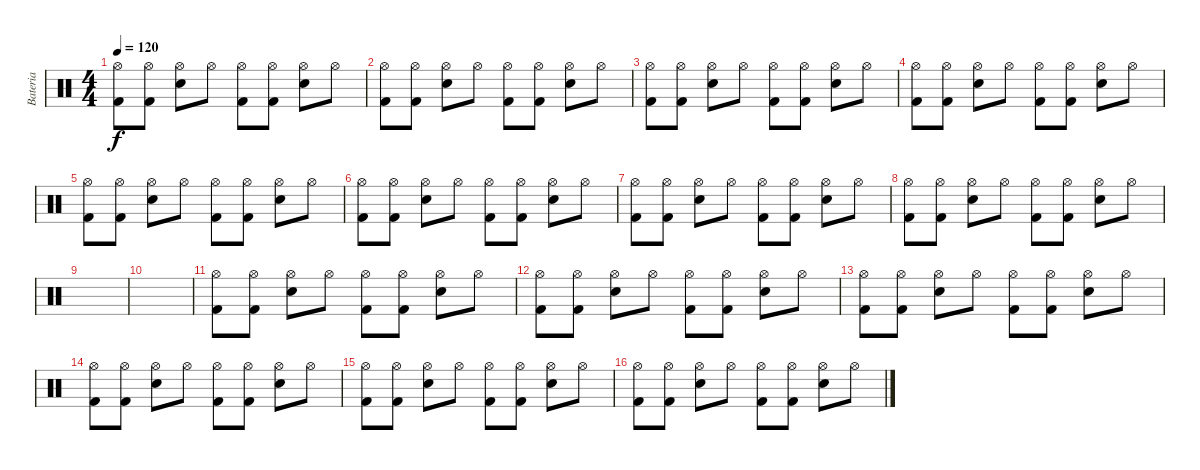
\track ("Bateria" "Bateria") {instrument percussion}
\staff {score}
\articulation defaults
\ts (4 4)
\tempo 120
\clef neutral
\ks c
("Hi-Hat (open)" "Kick (hit) 2").8{dy f} ("Hi-Hat (open)" "Kick (hit) 2").8 ("Hi-Hat (open)" "Electric Snare (hit)").8 "Hi-Hat (open)".8 ("Hi-Hat (open)" "Kick (hit) 2").8 ("Hi-Hat (open)" "Kick (hit) 2").8 ("Hi-Hat (open)" "Electric Snare (hit)").8 "Hi-Hat (open)".8 |
("Hi-Hat (open)" "Kick (hit) 2").8 ("Hi-Hat (open)" "Kick (hit) 2").8 ("Hi-Hat (open)" "Electric Snare (hit)").8 "Hi-Hat (open)".8 ("Hi-Hat (open)" "Kick (hit) 2").8 ("Hi-Hat (open)" "Kick (hit) 2").8 ("Hi-Hat (open)" "Electric Snare (hit)").8 "Hi-Hat (open)".8 |
("Hi-Hat (open)" "Kick (hit) 2").8 ("Hi-Hat (open)" "Kick (hit) 2").8 ("Hi-Hat (open)" "Electric Snare (hit)").8 "Hi-Hat (open)".8 ("Hi-Hat (open)" "Kick (hit) 2").8 ("Hi-Hat (open)" "Kick (hit) 2").8 ("Hi-Hat (open)" "Electric Snare (hit)").8 "Hi-Hat (open)".8 |
("Hi-Hat (open)" "Kick (hit) 2").8 ("Hi-Hat (open)" "Kick (hit) 2").8 ("Hi-Hat (open)" "Electric Snare (hit)").8 "Hi-Hat (open)".8 ("Hi-Hat (open)" "Kick (hit) 2").8 ("Hi-Hat (open)" "Kick (hit) 2").8 ("Hi-Hat (open)" "Electric Snare (hit)").8 "Hi-Hat (open)".8 |
("Hi-Hat (open)" "Kick (hit) 2").8 ("Hi-Hat (open)" "Kick (hit) 2").8 ("Hi-Hat (open)" "Electric Snare (hit)").8 "Hi-Hat (open)".8 ("Hi-Hat (open)" "Kick (hit) 2").8 ("Hi-Hat (open)" "Kick (hit) 2").8 ("Hi-Hat (open)" "Electric Snare (hit)").8 "Hi-Hat (open)".8 |
("Hi-Hat (open)" "Kick (hit) 2").8 ("Hi-Hat (open)" "Kick (hit) 2").8 ("Hi-Hat (open)" "Electric Snare (hit)").8 "Hi-Hat (open)".8 ("Hi-Hat (open)" "Kick (hit) 2").8 ("Hi-Hat (open)" "Kick (hit) 2").8 ("Hi-Hat (open)" "Electric Snare (hit)").8 "Hi-Hat (open)".8 |
("Hi-Hat (open)" "Kick (hit) 2").8 ("Hi-Hat (open)" "Kick (hit) 2").8 ("Hi-Hat (open)" "Electric Snare (hit)").8 "Hi-Hat (open)".8 ("Hi-Hat (open)" "Kick (hit) 2").8 ("Hi-Hat (open)" "Kick (hit) 2").8 ("Hi-Hat (open)" "Electric Snare (hit)").8 "Hi-Hat (open)".8 |
("Hi-Hat (open)" "Kick (hit) 2").8 ("Hi-Hat (open)" "Kick (hit) 2").8 ("Hi-Hat (open)" "Electric Snare (hit)").8 "Hi-Hat (open)".8 ("Hi-Hat (open)" "Kick (hit) 2").8 ("Hi-Hat (open)" "Kick (hit) 2").8 ("Hi-Hat (open)" "Electric Snare (hit)").8 "Hi-Hat (open)".8 |
|
|
("Hi-Hat (open)" "Kick (hit) 2").8 ("Hi-Hat (open)" "Kick (hit) 2").8 ("Hi-Hat (open)" "Electric Snare (hit)").8 "Hi-Hat (open)".8 ("Hi-Hat (open)" "Kick (hit) 2").8 ("Hi-Hat (open)" "Kick (hit) 2").8 ("Hi-Hat (open)" "Electric Snare (hit)").8 "Hi-Hat (open)".8 |
("Hi-Hat (open)" "Kick (hit) 2").8 ("Hi-Hat (open)" "Kick (hit) 2").8 ("Hi-Hat (open)" "Electric Snare (hit)").8 "Hi-Hat (open)".8 ("Hi-Hat (open)" "Kick (hit) 2").8 ("Hi-Hat (open)" "Kick (hit) 2").8 ("Hi-Hat (open)" "Electric Snare (hit)").8 "Hi-Hat (open)".8 |
("Hi-Hat (open)" "Kick (hit) 2").8 ("Hi-Hat (open)" "Kick (hit) 2").8 ("Hi-Hat (open)" "Electric Snare (hit)").8 "Hi-Hat (open)".8 ("Hi-Hat (open)" "Kick (hit) 2").8 ("Hi-Hat (open)" "Kick (hit) 2").8 ("Hi-Hat (open)" "Electric Snare (hit)").8 "Hi-Hat (open)".8 |
("Hi-Hat (open)" "Kick (hit) 2").8 ("Hi-Hat (open)" "Kick (hit) 2").8 ("Hi-Hat (open)" "Electric Snare (hit)").8 "Hi-Hat (open)".8 ("Hi-Hat (open)" "Kick (hit) 2").8 ("Hi-Hat (open)" "Kick (hit) 2").8 ("Hi-Hat (open)" "Electric Snare (hit)").8 "Hi-Hat (open)".8 |
("Hi-Hat (open)" "Kick (hit) 2").8 ("Hi-Hat (open)" "Kick (hit) 2").8 ("Hi-Hat (open)" "Electric Snare (hit)").8 "Hi-Hat (open)".8 ("Hi-Hat (open)" "Kick (hit) 2").8 ("Hi-Hat (open)" "Kick (hit) 2").8 ("Hi-Hat (open)" "Electric Snare (hit)").8 "Hi-Hat (open)".8 |
("Hi-Hat (open)" "Kick (hit) 2").8 ("Hi-Hat (open)" "Kick (hit) 2").8 ("Hi-Hat (open)" "Electric Snare (hit)").8 "Hi-Hat (open)".8 ("Hi-Hat (open)" "Kick (hit) 2").8 ("Hi-Hat (open)" "Kick (hit) 2").8 ("Hi-Hat (open)" "Electric Snare (hit)").8 "Hi-Hat (open)".8
